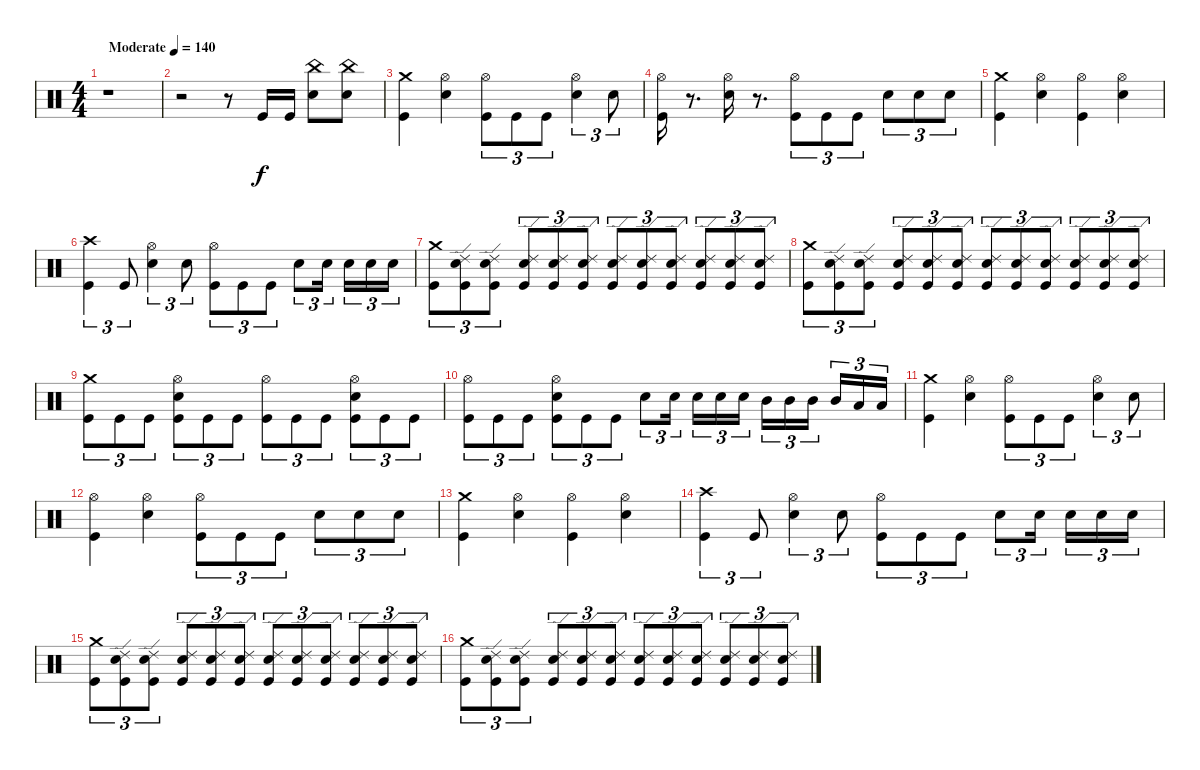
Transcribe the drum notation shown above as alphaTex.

\track "" {instrument percussion}
\staff {score}
\articulation defaults
\ts (4 4)
\tempo (140 "Moderate")
\clef neutral
\ks c
r.1{dy f} |
r.2 r.8 "Kick (hit)".16 "Kick (hit)".16 ("Snare (hit) 2" "China (hit)").8 ("Snare (hit) 2" "China (hit)").8 |
("Crash medium (hit)" "Kick (hit)").4 ("Hi-Hat (open)" "Snare (hit) 2").4 ("Hi-Hat (open)" "Kick (hit)").8{tu (3 2)} "Kick (hit)".8{tu (3 2)} "Kick (hit)".8{tu (3 2)} ("Hi-Hat (open)" "Snare (hit) 2").4{tu (3 2)} "Snare (hit) 2".8{tu (3 2)} |
("Hi-Hat (open)" "Kick (hit)").16 r.8{d} ("Hi-Hat (open)" "Snare (hit) 2").16 r.8{d} ("Hi-Hat (open)" "Kick (hit)").8{tu (3 2)} "Kick (hit)".8{tu (3 2)} "Kick (hit)".8{tu (3 2)} "Snare (hit) 2".8{tu (3 2)} "Snare (hit) 2".8{tu (3 2)} "Snare (hit) 2".8{tu (3 2)} |
("Crash medium (hit)" "Kick (hit)").4 ("Hi-Hat (open)" "Snare (hit) 2").4 ("Hi-Hat (open)" "Kick (hit)").4 ("Hi-Hat (open)" "Snare (hit) 2").4 |
("Crash high (hit)" "Kick (hit)").4{tu (3 2)} "Kick (hit)".8{tu (3 2)} ("Hi-Hat (open)" "Snare (hit) 2").4{tu (3 2)} "Snare (hit) 2".8{tu (3 2)} ("Hi-Hat (open)" "Kick (hit)").8{tu (3 2)} "Kick (hit)".8{tu (3 2)} "Kick (hit)".8{tu (3 2)} "Snare (hit) 2".8{tu (3 2)} "Snare (hit) 2".16{tu (3 2) beam splitsecondary} "Snare (hit) 2".16{tu (3 2)} "Snare (hit) 2".16{tu (3 2)} "Snare (hit) 2".16{tu (3 2)} |
("Kick (hit)" "Crash medium (hit)").8{tu (3 2)} ("Kick (hit)" "Ride (edge) 2" "Snare (hit) 2").8{tu (3 2)} ("Ride (edge) 2" "Kick (hit)" "Snare (hit) 2").8{tu (3 2)} ("Ride (edge) 2" "Kick (hit)" "Snare (hit) 2").8{tu (3 2)} ("Snare (hit) 2" "Kick (hit)" "Ride (edge) 2").8{tu (3 2)} ("Snare (hit) 2" "Kick (hit)" "Ride (edge) 2").8{tu (3 2)} ("Snare (hit) 2" "Ride (edge) 2" "Kick (hit)").8{tu (3 2)} ("Snare (hit) 2" "Kick (hit)" "Ride (edge) 2").8{tu (3 2)} ("Snare (hit) 2" "Ride (edge) 2" "Kick (hit)").8{tu (3 2)} ("Snare (hit) 2" "Kick (hit)" "Ride (edge) 2").8{tu (3 2)} ("Snare (hit) 2" "Ride (edge) 2" "Kick (hit)").8{tu (3 2)} ("Snare (hit) 2" "Ride (edge) 2" "Kick (hit)").8{tu (3 2)} |
("Kick (hit)" "Crash medium (hit)").8{tu (3 2)} ("Kick (hit)" "Ride (edge) 2" "Snare (hit) 2").8{tu (3 2)} ("Kick (hit)" "Ride (edge) 2" "Snare (hit) 2").8{tu (3 2)} ("Kick (hit)" "Ride (edge) 2" "Snare (hit) 2").8{tu (3 2)} ("Kick (hit)" "Snare (hit) 2" "Ride (edge) 2").8{tu (3 2)} ("Kick (hit)" "Snare (hit) 2" "Ride (edge) 2").8{tu (3 2)} ("Kick (hit)" "Snare (hit) 2" "Ride (edge) 2").8{tu (3 2)} ("Kick (hit)" "Snare (hit) 2" "Ride (edge) 2").8{tu (3 2)} ("Kick (hit)" "Snare (hit) 2" "Ride (edge) 2").8{tu (3 2)} ("Kick (hit)" "Snare (hit) 2" "Ride (edge) 2").8{tu (3 2)} ("Kick (hit)" "Snare (hit) 2" "Ride (edge) 2").8{tu (3 2)} ("Kick (hit)" "Snare (hit) 2" "Ride (edge) 2").8{tu (3 2)} |
("Crash medium (hit)" "Kick (hit)").8{tu (3 2)} "Kick (hit)".8{tu (3 2)} "Kick (hit)".8{tu (3 2)} ("Hi-Hat (open)" "Kick (hit)" "Snare (hit) 2").8{tu (3 2)} "Kick (hit)".8{tu (3 2)} "Kick (hit)".8{tu (3 2)} ("Hi-Hat (open)" "Kick (hit)").8{tu (3 2)} "Kick (hit)".8{tu (3 2)} "Kick (hit)".8{tu (3 2)} ("Hi-Hat (open)" "Snare (hit) 2" "Kick (hit)").8{tu (3 2)} "Kick (hit)".8{tu (3 2)} "Kick (hit)".8{tu (3 2)} |
("Hi-Hat (open)" "Kick (hit)").8{tu (3 2)} "Kick (hit)".8{tu (3 2)} "Kick (hit)".8{tu (3 2)} ("Hi-Hat (open)" "Kick (hit)" "Snare (hit) 2").8{tu (3 2)} "Kick (hit)".8{tu (3 2)} "Kick (hit)".8{tu (3 2)} "Snare (hit) 2".8{tu (3 2)} "Snare (hit) 2".16{tu (3 2) beam splitsecondary} "Snare (hit) 2".16{tu (3 2)} "Snare (hit) 2".16{tu (3 2)} "Snare (hit) 2".16{tu (3 2)} "Mid Tom (hit)".16{tu (3 2)} "Mid Tom (hit)".16{tu (3 2)} "Mid Tom (hit)".16{tu (3 2) beam splitsecondary} "Mid Tom (hit)".16{tu (3 2)} "Low Tom (hit)".16{tu (3 2)} "Low Tom (hit)".16{tu (3 2)} |
("Crash medium (hit)" "Kick (hit)").4 ("Hi-Hat (open)" "Snare (hit) 2").4 ("Hi-Hat (open)" "Kick (hit)").8{tu (3 2)} "Kick (hit)".8{tu (3 2)} "Kick (hit)".8{tu (3 2)} ("Hi-Hat (open)" "Snare (hit) 2").4{tu (3 2)} "Snare (hit) 2".8{tu (3 2)} |
("Hi-Hat (open)" "Kick (hit)").4 ("Hi-Hat (open)" "Snare (hit) 2").4 ("Hi-Hat (open)" "Kick (hit)").8{tu (3 2)} "Kick (hit)".8{tu (3 2)} "Kick (hit)".8{tu (3 2)} "Snare (hit) 2".8{tu (3 2)} "Snare (hit) 2".8{tu (3 2)} "Snare (hit) 2".8{tu (3 2)} |
("Crash medium (hit)" "Kick (hit)").4 ("Hi-Hat (open)" "Snare (hit) 2").4 ("Hi-Hat (open)" "Kick (hit)").4 ("Hi-Hat (open)" "Snare (hit) 2").4 |
("Crash high (hit)" "Kick (hit)").4{tu (3 2)} "Kick (hit)".8{tu (3 2)} ("Hi-Hat (open)" "Snare (hit) 2").4{tu (3 2)} "Snare (hit) 2".8{tu (3 2)} ("Hi-Hat (open)" "Kick (hit)").8{tu (3 2)} "Kick (hit)".8{tu (3 2)} "Kick (hit)".8{tu (3 2)} "Snare (hit) 2".8{tu (3 2)} "Snare (hit) 2".16{tu (3 2) beam splitsecondary} "Snare (hit) 2".16{tu (3 2)} "Snare (hit) 2".16{tu (3 2)} "Snare (hit) 2".16{tu (3 2)} |
("Kick (hit)" "Crash medium (hit)").8{tu (3 2)} ("Kick (hit)" "Ride (edge) 2" "Snare (hit) 2").8{tu (3 2)} ("Ride (edge) 2" "Kick (hit)" "Snare (hit) 2").8{tu (3 2)} ("Ride (edge) 2" "Kick (hit)" "Snare (hit) 2").8{tu (3 2)} ("Snare (hit) 2" "Kick (hit)" "Ride (edge) 2").8{tu (3 2)} ("Snare (hit) 2" "Kick (hit)" "Ride (edge) 2").8{tu (3 2)} ("Snare (hit) 2" "Ride (edge) 2" "Kick (hit)").8{tu (3 2)} ("Snare (hit) 2" "Kick (hit)" "Ride (edge) 2").8{tu (3 2)} ("Snare (hit) 2" "Ride (edge) 2" "Kick (hit)").8{tu (3 2)} ("Snare (hit) 2" "Kick (hit)" "Ride (edge) 2").8{tu (3 2)} ("Snare (hit) 2" "Ride (edge) 2" "Kick (hit)").8{tu (3 2)} ("Snare (hit) 2" "Ride (edge) 2" "Kick (hit)").8{tu (3 2)} |
("Kick (hit)" "Crash medium (hit)").8{tu (3 2)} ("Kick (hit)" "Ride (edge) 2" "Snare (hit) 2").8{tu (3 2)} ("Kick (hit)" "Ride (edge) 2" "Snare (hit) 2").8{tu (3 2)} ("Kick (hit)" "Ride (edge) 2" "Snare (hit) 2").8{tu (3 2)} ("Kick (hit)" "Snare (hit) 2" "Ride (edge) 2").8{tu (3 2)} ("Kick (hit)" "Snare (hit) 2" "Ride (edge) 2").8{tu (3 2)} ("Kick (hit)" "Snare (hit) 2" "Ride (edge) 2").8{tu (3 2)} ("Kick (hit)" "Snare (hit) 2" "Ride (edge) 2").8{tu (3 2)} ("Kick (hit)" "Snare (hit) 2" "Ride (edge) 2").8{tu (3 2)} ("Kick (hit)" "Snare (hit) 2" "Ride (edge) 2").8{tu (3 2)} ("Kick (hit)" "Snare (hit) 2" "Ride (edge) 2").8{tu (3 2)} ("Kick (hit)" "Snare (hit) 2" "Ride (edge) 2").8{tu (3 2)}
